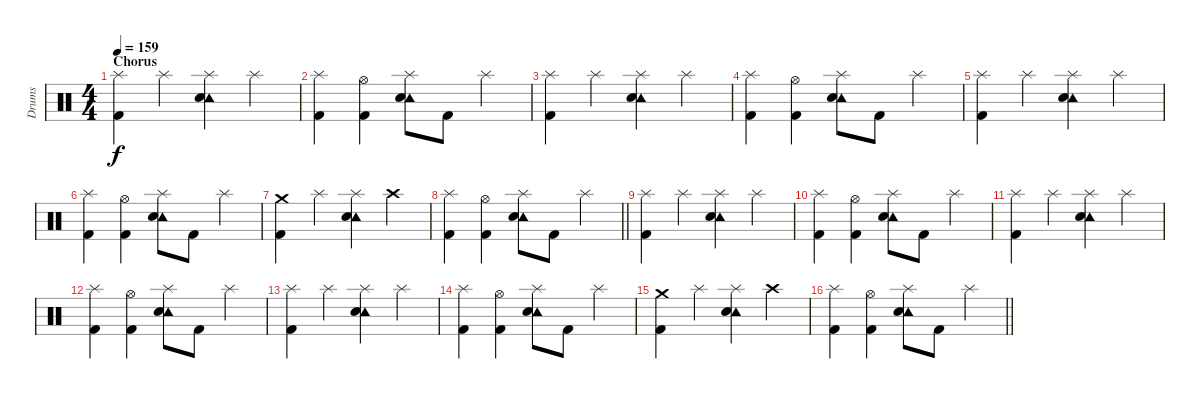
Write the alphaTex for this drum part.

\track ("Drums" "Drums") {instrument percussion}
\staff {score}
\articulation defaults
\ts (4 4)
\section ("" "Chorus")
\tempo 159
\clef neutral
\ks c
("Splash (hit)" "Kick (hit) 2").4{dy f} "Splash (hit)".4 ("Splash (hit)" "Tambourine (hit)" "Snare (hit) 2").4 "Splash (hit)".4 |
("Splash (hit)" "Kick (hit) 2").4 ("Hi-Hat (open)" "Kick (hit) 2").4 ("Splash (hit)" "Tambourine (hit)" "Snare (hit) 2").8 "Kick (hit) 2".8 "Splash (hit)".4 |
("Splash (hit)" "Kick (hit) 2").4 "Splash (hit)".4 ("Splash (hit)" "Tambourine (hit)" "Snare (hit) 2").4 "Splash (hit)".4 |
("Splash (hit)" "Kick (hit) 2").4 ("Hi-Hat (open)" "Kick (hit) 2").4 ("Splash (hit)" "Tambourine (hit)" "Snare (hit) 2").8 "Kick (hit) 2".8 "Splash (hit)".4 |
("Splash (hit)" "Kick (hit) 2").4 "Splash (hit)".4 ("Splash (hit)" "Tambourine (hit)" "Snare (hit) 2").4 "Splash (hit)".4 |
("Splash (hit)" "Kick (hit) 2").4 ("Hi-Hat (open)" "Kick (hit) 2").4 ("Splash (hit)" "Tambourine (hit)" "Snare (hit) 2").8 "Kick (hit) 2".8 "Splash (hit)".4 |
("Crash medium (hit)" "Kick (hit) 2").4 "Splash (hit)".4 ("Splash (hit)" "Tambourine (hit)" "Snare (hit) 2").4 "Crash high (hit)".4 |
\barLineRight lightlight
("Splash (hit)" "Kick (hit) 2").4 ("Hi-Hat (open)" "Kick (hit) 2").4 ("Splash (hit)" "Tambourine (hit)" "Snare (hit) 2").8 "Kick (hit) 2".8 "Splash (hit)".4 |
("Splash (hit)" "Kick (hit) 2").4 "Splash (hit)".4 ("Splash (hit)" "Tambourine (hit)" "Snare (hit) 2").4 "Splash (hit)".4 |
("Splash (hit)" "Kick (hit) 2").4 ("Hi-Hat (open)" "Kick (hit) 2").4 ("Splash (hit)" "Tambourine (hit)" "Snare (hit) 2").8 "Kick (hit) 2".8 "Splash (hit)".4 |
("Splash (hit)" "Kick (hit) 2").4 "Splash (hit)".4 ("Splash (hit)" "Tambourine (hit)" "Snare (hit) 2").4 "Splash (hit)".4 |
("Splash (hit)" "Kick (hit) 2").4 ("Hi-Hat (open)" "Kick (hit) 2").4 ("Splash (hit)" "Tambourine (hit)" "Snare (hit) 2").8 "Kick (hit) 2".8 "Splash (hit)".4 |
("Splash (hit)" "Kick (hit) 2").4 "Splash (hit)".4 ("Splash (hit)" "Tambourine (hit)" "Snare (hit) 2").4 "Splash (hit)".4 |
("Splash (hit)" "Kick (hit) 2").4 ("Hi-Hat (open)" "Kick (hit) 2").4 ("Splash (hit)" "Tambourine (hit)" "Snare (hit) 2").8 "Kick (hit) 2".8 "Splash (hit)".4 |
("Crash medium (hit)" "Kick (hit) 2").4 "Splash (hit)".4 ("Splash (hit)" "Tambourine (hit)" "Snare (hit) 2").4 "Crash high (hit)".4 |
\barLineRight lightlight
("Splash (hit)" "Kick (hit) 2").4 ("Hi-Hat (open)" "Kick (hit) 2").4 ("Splash (hit)" "Tambourine (hit)" "Snare (hit) 2").8 "Kick (hit) 2".8 "Splash (hit)".4
